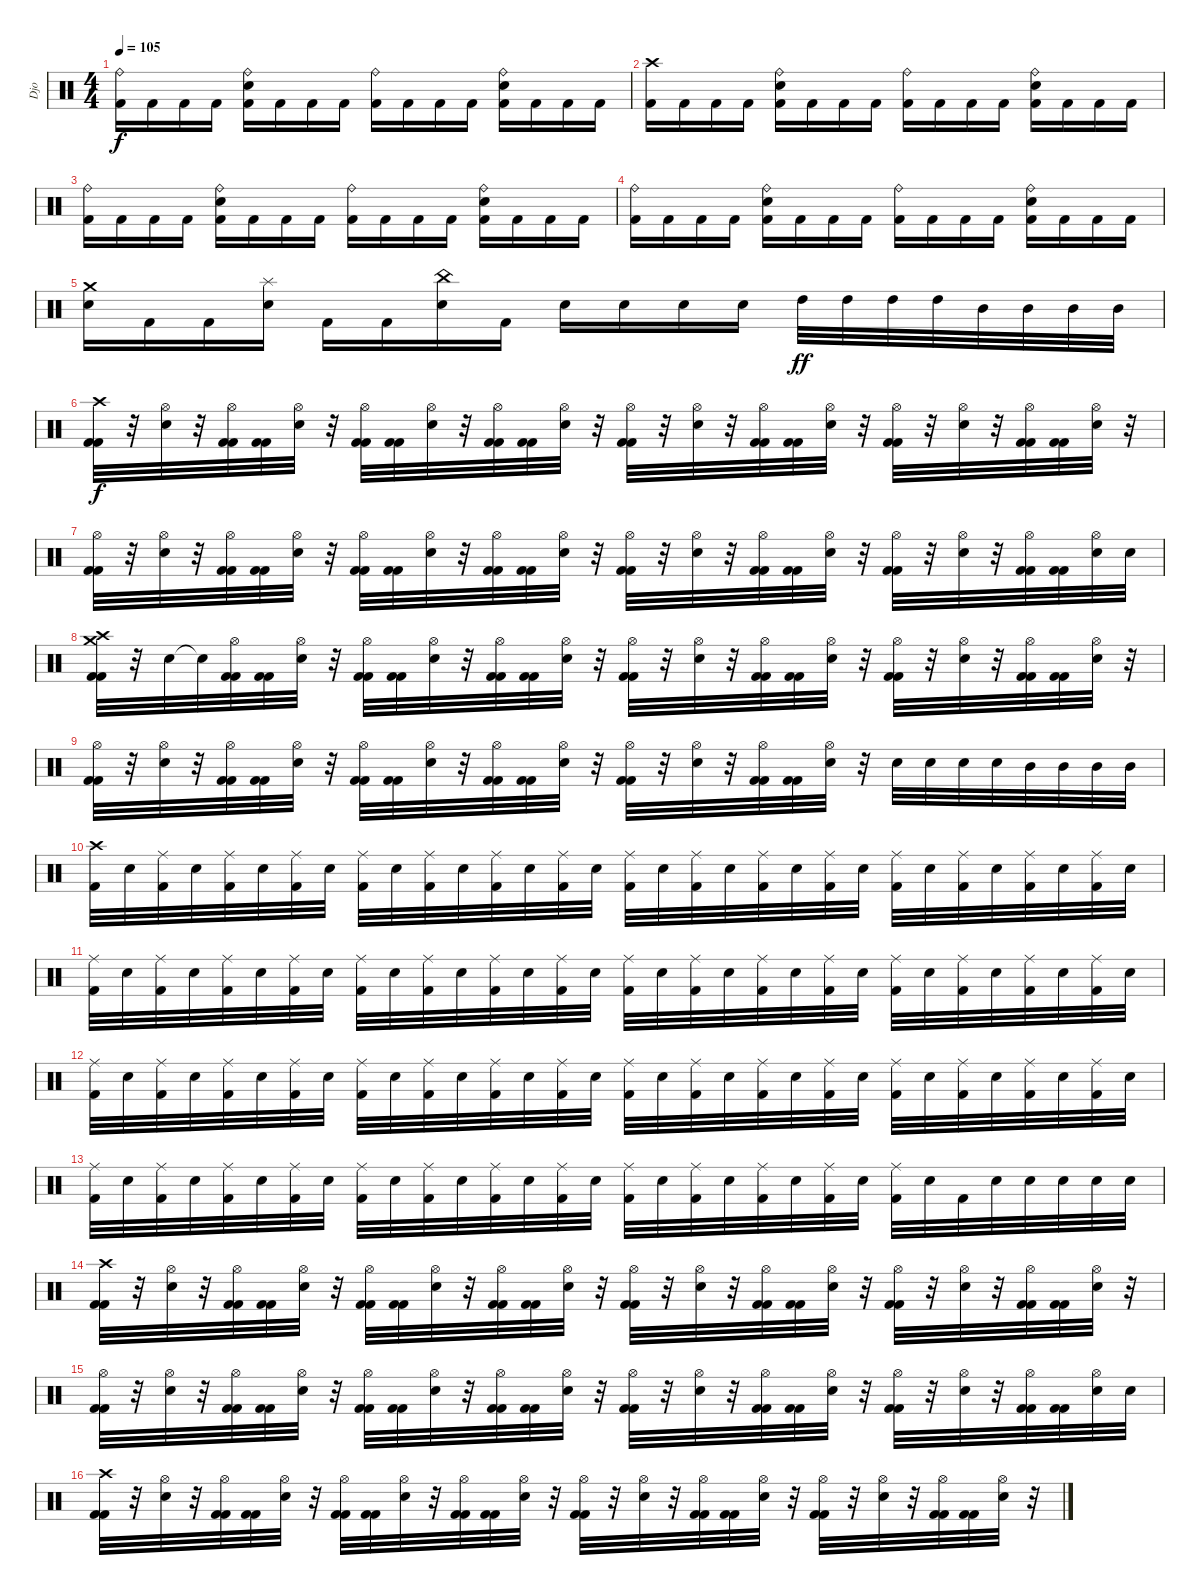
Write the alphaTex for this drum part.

\track ("Djo" "Djo") {instrument percussion}
\staff {score}
\articulation defaults
\ts (4 4)
\tempo 105
\clef neutral
\ks c
("Ride (bell)" "Kick (hit) 2").16{dy f} "Kick (hit) 2".16 "Kick (hit) 2".16 "Kick (hit) 2".16 ("Ride (bell)" "Snare (hit) 2" "Kick (hit) 2").16 "Kick (hit) 2".16 "Kick (hit) 2".16 "Kick (hit) 2".16 ("Ride (bell)" "Kick (hit) 2").16 "Kick (hit) 2".16 "Kick (hit) 2".16 "Kick (hit) 2".16 ("Ride (bell)" "Snare (hit) 2" "Kick (hit) 2").16 "Kick (hit) 2".16 "Kick (hit) 2".16 "Kick (hit) 2".16 |
("Crash high (hit)" "Kick (hit) 2").16 "Kick (hit) 2".16 "Kick (hit) 2".16 "Kick (hit) 2".16 ("Ride (bell)" "Snare (hit) 2" "Kick (hit) 2").16 "Kick (hit) 2".16 "Kick (hit) 2".16 "Kick (hit) 2".16 ("Ride (bell)" "Kick (hit) 2").16 "Kick (hit) 2".16 "Kick (hit) 2".16 "Kick (hit) 2".16 ("Ride (bell)" "Snare (hit) 2" "Kick (hit) 2").16 "Kick (hit) 2".16 "Kick (hit) 2".16 "Kick (hit) 2".16 |
("Ride (bell)" "Kick (hit) 2").16 "Kick (hit) 2".16 "Kick (hit) 2".16 "Kick (hit) 2".16 ("Ride (bell)" "Snare (hit) 2" "Kick (hit) 2").16 "Kick (hit) 2".16 "Kick (hit) 2".16 "Kick (hit) 2".16 ("Ride (bell)" "Kick (hit) 2").16 "Kick (hit) 2".16 "Kick (hit) 2".16 "Kick (hit) 2".16 ("Ride (bell)" "Snare (hit) 2" "Kick (hit) 2").16 "Kick (hit) 2".16 "Kick (hit) 2".16 "Kick (hit) 2".16 |
("Ride (bell)" "Kick (hit) 2").16 "Kick (hit) 2".16 "Kick (hit) 2".16 "Kick (hit) 2".16 ("Ride (bell)" "Snare (hit) 2" "Kick (hit) 2").16 "Kick (hit) 2".16 "Kick (hit) 2".16 "Kick (hit) 2".16 ("Ride (bell)" "Kick (hit) 2").16 "Kick (hit) 2".16 "Kick (hit) 2".16 "Kick (hit) 2".16 ("Ride (bell)" "Snare (hit) 2" "Kick (hit) 2").16 "Kick (hit) 2".16 "Kick (hit) 2".16 "Kick (hit) 2".16 |
("Crash medium (hit)" "Snare (hit) 2").16 "Kick (hit) 2".16 "Kick (hit) 2".16 ("Splash (hit)" "Snare (hit) 2").16 "Kick (hit) 2".16 "Kick (hit) 2".16 ("China (hit)" "Snare (hit) 2").16 "Kick (hit) 2".16 "Snare (hit) 2".16 "Snare (hit) 2".16 "Snare (hit) 2".16 "Snare (hit) 2".16 "High Tom (hit)".32{dy ff} "High Tom (hit)".32 "High Tom (hit)".32 "High Tom (hit)".32 "Mid Tom (hit)".32 "Mid Tom (hit)".32 "Mid Tom (hit)".32 "Mid Tom (hit)".32 |
("Crash high (hit)" "Kick (hit) 2" "Kick (hit) 2").32{dy f} r.32 ("Hi-Hat (open)" "Snare (hit) 2").32 r.32 ("Hi-Hat (open)" "Kick (hit) 2" "Kick (hit) 2").32 ("Kick (hit) 2" "Kick (hit) 2").32 ("Hi-Hat (open)" "Snare (hit) 2").32 r.32 ("Hi-Hat (open)" "Kick (hit) 2" "Kick (hit) 2").32 ("Kick (hit) 2" "Kick (hit) 2").32 ("Hi-Hat (open)" "Snare (hit) 2").32 r.32 ("Hi-Hat (open)" "Kick (hit) 2" "Kick (hit) 2").32 ("Kick (hit) 2" "Kick (hit) 2").32 ("Hi-Hat (open)" "Snare (hit) 2").32 r.32 ("Hi-Hat (open)" "Kick (hit) 2" "Kick (hit) 2").32 r.32 ("Hi-Hat (open)" "Snare (hit) 2").32 r.32 ("Hi-Hat (open)" "Kick (hit) 2" "Kick (hit) 2").32 ("Kick (hit) 2" "Kick (hit) 2").32 ("Hi-Hat (open)" "Snare (hit) 2").32 r.32 ("Hi-Hat (open)" "Kick (hit) 2" "Kick (hit) 2").32 r.32 ("Hi-Hat (open)" "Snare (hit) 2").32 r.32 ("Hi-Hat (open)" "Kick (hit) 2" "Kick (hit) 2").32 ("Kick (hit) 2" "Kick (hit) 2").32 ("Hi-Hat (open)" "Snare (hit) 2").32 r.32 |
("Hi-Hat (open)" "Kick (hit) 2" "Kick (hit) 2").32 r.32 ("Hi-Hat (open)" "Snare (hit) 2").32 r.32 ("Hi-Hat (open)" "Kick (hit) 2" "Kick (hit) 2").32 ("Kick (hit) 2" "Kick (hit) 2").32 ("Hi-Hat (open)" "Snare (hit) 2").32 r.32 ("Hi-Hat (open)" "Kick (hit) 2" "Kick (hit) 2").32 ("Kick (hit) 2" "Kick (hit) 2").32 ("Hi-Hat (open)" "Snare (hit) 2").32 r.32 ("Hi-Hat (open)" "Kick (hit) 2" "Kick (hit) 2").32 ("Kick (hit) 2" "Kick (hit) 2").32 ("Hi-Hat (open)" "Snare (hit) 2").32 r.32 ("Hi-Hat (open)" "Kick (hit) 2" "Kick (hit) 2").32 r.32 ("Hi-Hat (open)" "Snare (hit) 2").32 r.32 ("Hi-Hat (open)" "Kick (hit) 2" "Kick (hit) 2").32 ("Kick (hit) 2" "Kick (hit) 2").32 ("Hi-Hat (open)" "Snare (hit) 2").32 r.32 ("Hi-Hat (open)" "Kick (hit) 2" "Kick (hit) 2").32 r.32 ("Hi-Hat (open)" "Snare (hit) 2").32 r.32 ("Hi-Hat (open)" "Kick (hit) 2" "Kick (hit) 2").32 ("Kick (hit) 2" "Kick (hit) 2").32 ("Hi-Hat (open)" "Snare (hit) 2").32 "Snare (hit) 2".32 |
("Crash high (hit)" "Crash medium (hit)" "Kick (hit) 2" "Kick (hit) 2").32 r.32 "Snare (hit) 2".32 "Snare (hit)"{t}.32 ("Hi-Hat (open)" "Kick (hit) 2" "Kick (hit) 2").32 ("Kick (hit) 2" "Kick (hit) 2").32 ("Hi-Hat (open)" "Snare (hit) 2").32 r.32 ("Hi-Hat (open)" "Kick (hit) 2" "Kick (hit) 2").32 ("Kick (hit) 2" "Kick (hit) 2").32 ("Hi-Hat (open)" "Snare (hit) 2").32 r.32 ("Hi-Hat (open)" "Kick (hit) 2" "Kick (hit) 2").32 ("Kick (hit) 2" "Kick (hit) 2").32 ("Hi-Hat (open)" "Snare (hit) 2").32 r.32 ("Hi-Hat (open)" "Kick (hit) 2" "Kick (hit) 2").32 r.32 ("Hi-Hat (open)" "Snare (hit) 2").32 r.32 ("Hi-Hat (open)" "Kick (hit) 2" "Kick (hit) 2").32 ("Kick (hit) 2" "Kick (hit) 2").32 ("Hi-Hat (open)" "Snare (hit) 2").32 r.32 ("Hi-Hat (open)" "Kick (hit) 2" "Kick (hit) 2").32 r.32 ("Hi-Hat (open)" "Snare (hit) 2").32 r.32 ("Hi-Hat (open)" "Kick (hit) 2" "Kick (hit) 2").32 ("Kick (hit) 2" "Kick (hit) 2").32 ("Hi-Hat (open)" "Snare (hit) 2").32 r.32 |
("Hi-Hat (open)" "Kick (hit) 2" "Kick (hit) 2").32 r.32 ("Hi-Hat (open)" "Snare (hit) 2").32 r.32 ("Hi-Hat (open)" "Kick (hit) 2" "Kick (hit) 2").32 ("Kick (hit) 2" "Kick (hit) 2").32 ("Hi-Hat (open)" "Snare (hit) 2").32 r.32 ("Hi-Hat (open)" "Kick (hit) 2" "Kick (hit) 2").32 ("Kick (hit) 2" "Kick (hit) 2").32 ("Hi-Hat (open)" "Snare (hit) 2").32 r.32 ("Hi-Hat (open)" "Kick (hit) 2" "Kick (hit) 2").32 ("Kick (hit) 2" "Kick (hit) 2").32 ("Hi-Hat (open)" "Snare (hit) 2").32 r.32 ("Hi-Hat (open)" "Kick (hit) 2" "Kick (hit) 2").32 r.32 ("Hi-Hat (open)" "Snare (hit) 2").32 r.32 ("Hi-Hat (open)" "Kick (hit) 2" "Kick (hit) 2").32 ("Kick (hit) 2" "Kick (hit) 2").32 ("Hi-Hat (open)" "Snare (hit) 2").32 r.32 "Snare (hit) 2".32 "Snare (hit) 2".32 "Snare (hit) 2".32 "Snare (hit) 2".32 "Mid Tom (hit)".32 "Mid Tom (hit)".32 "Mid Tom (hit)".32 "Mid Tom (hit)".32 |
("Crash high (hit)" "Kick (hit) 2").32 "Snare (hit) 2".32 ("Ride (middle)" "Kick (hit) 2").32 "Snare (hit) 2".32 ("Ride (middle)" "Kick (hit) 2").32 "Snare (hit) 2".32 ("Ride (middle)" "Kick (hit) 2").32 "Snare (hit) 2".32 ("Ride (middle)" "Kick (hit) 2").32 "Snare (hit) 2".32 ("Ride (middle)" "Kick (hit) 2").32 "Snare (hit) 2".32 ("Ride (middle)" "Kick (hit) 2").32 "Snare (hit) 2".32 ("Ride (middle)" "Kick (hit) 2").32 "Snare (hit) 2".32 ("Ride (middle)" "Kick (hit) 2").32 "Snare (hit) 2".32 ("Ride (middle)" "Kick (hit) 2").32 "Snare (hit) 2".32 ("Ride (middle)" "Kick (hit) 2").32 "Snare (hit) 2".32 ("Ride (middle)" "Kick (hit) 2").32 "Snare (hit) 2".32 ("Ride (middle)" "Kick (hit) 2").32 "Snare (hit) 2".32 ("Ride (middle)" "Kick (hit) 2").32 "Snare (hit) 2".32 ("Ride (middle)" "Kick (hit) 2").32 "Snare (hit) 2".32 ("Ride (middle)" "Kick (hit) 2").32 "Snare (hit) 2".32 |
("Ride (middle)" "Kick (hit) 2").32 "Snare (hit) 2".32 ("Ride (middle)" "Kick (hit) 2").32 "Snare (hit) 2".32 ("Ride (middle)" "Kick (hit) 2").32 "Snare (hit) 2".32 ("Ride (middle)" "Kick (hit) 2").32 "Snare (hit) 2".32 ("Ride (middle)" "Kick (hit) 2").32 "Snare (hit) 2".32 ("Ride (middle)" "Kick (hit) 2").32 "Snare (hit) 2".32 ("Ride (middle)" "Kick (hit) 2").32 "Snare (hit) 2".32 ("Ride (middle)" "Kick (hit) 2").32 "Snare (hit) 2".32 ("Ride (middle)" "Kick (hit) 2").32 "Snare (hit) 2".32 ("Ride (middle)" "Kick (hit) 2").32 "Snare (hit) 2".32 ("Ride (middle)" "Kick (hit) 2").32 "Snare (hit) 2".32 ("Ride (middle)" "Kick (hit) 2").32 "Snare (hit) 2".32 ("Ride (middle)" "Kick (hit) 2").32 "Snare (hit) 2".32 ("Ride (middle)" "Kick (hit) 2").32 "Snare (hit) 2".32 ("Ride (middle)" "Kick (hit) 2").32 "Snare (hit) 2".32 ("Ride (middle)" "Kick (hit) 2").32 "Snare (hit) 2".32 |
("Ride (middle)" "Kick (hit) 2").32 "Snare (hit) 2".32 ("Ride (middle)" "Kick (hit) 2").32 "Snare (hit) 2".32 ("Ride (middle)" "Kick (hit) 2").32 "Snare (hit) 2".32 ("Ride (middle)" "Kick (hit) 2").32 "Snare (hit) 2".32 ("Ride (middle)" "Kick (hit) 2").32 "Snare (hit) 2".32 ("Ride (middle)" "Kick (hit) 2").32 "Snare (hit) 2".32 ("Ride (middle)" "Kick (hit) 2").32 "Snare (hit) 2".32 ("Ride (middle)" "Kick (hit) 2").32 "Snare (hit) 2".32 ("Ride (middle)" "Kick (hit) 2").32 "Snare (hit) 2".32 ("Ride (middle)" "Kick (hit) 2").32 "Snare (hit) 2".32 ("Ride (middle)" "Kick (hit) 2").32 "Snare (hit) 2".32 ("Ride (middle)" "Kick (hit) 2").32 "Snare (hit) 2".32 ("Ride (middle)" "Kick (hit) 2").32 "Snare (hit) 2".32 ("Ride (middle)" "Kick (hit) 2").32 "Snare (hit) 2".32 ("Ride (middle)" "Kick (hit) 2").32 "Snare (hit) 2".32 ("Ride (middle)" "Kick (hit) 2").32 "Snare (hit) 2".32 |
("Ride (middle)" "Kick (hit) 2").32 "Snare (hit) 2".32 ("Ride (middle)" "Kick (hit) 2").32 "Snare (hit) 2".32 ("Ride (middle)" "Kick (hit) 2").32 "Snare (hit) 2".32 ("Ride (middle)" "Kick (hit) 2").32 "Snare (hit) 2".32 ("Ride (middle)" "Kick (hit) 2").32 "Snare (hit) 2".32 ("Ride (middle)" "Kick (hit) 2").32 "Snare (hit) 2".32 ("Ride (middle)" "Kick (hit) 2").32 "Snare (hit) 2".32 ("Ride (middle)" "Kick (hit) 2").32 "Snare (hit) 2".32 ("Ride (middle)" "Kick (hit) 2").32 "Snare (hit) 2".32 ("Ride (middle)" "Kick (hit) 2").32 "Snare (hit) 2".32 ("Ride (middle)" "Kick (hit) 2").32 "Snare (hit) 2".32 ("Ride (middle)" "Kick (hit) 2").32 "Snare (hit) 2".32 ("Ride (middle)" "Kick (hit) 2").32 "Snare (hit) 2".32 "Kick (hit) 2".32 "Snare (hit) 2".32 "Snare (hit) 2".32 "Snare (hit) 2".32 "Snare (hit) 2".32 "Snare (hit) 2".32 |
("Crash high (hit)" "Kick (hit) 2" "Kick (hit) 2").32 r.32 ("Hi-Hat (open)" "Snare (hit) 2").32 r.32 ("Hi-Hat (open)" "Kick (hit) 2" "Kick (hit) 2").32 ("Kick (hit) 2" "Kick (hit) 2").32 ("Hi-Hat (open)" "Snare (hit) 2").32 r.32 ("Hi-Hat (open)" "Kick (hit) 2" "Kick (hit) 2").32 ("Kick (hit) 2" "Kick (hit) 2").32 ("Hi-Hat (open)" "Snare (hit) 2").32 r.32 ("Hi-Hat (open)" "Kick (hit) 2" "Kick (hit) 2").32 ("Kick (hit) 2" "Kick (hit) 2").32 ("Hi-Hat (open)" "Snare (hit) 2").32 r.32 ("Hi-Hat (open)" "Kick (hit) 2" "Kick (hit) 2").32 r.32 ("Hi-Hat (open)" "Snare (hit) 2").32 r.32 ("Hi-Hat (open)" "Kick (hit) 2" "Kick (hit) 2").32 ("Kick (hit) 2" "Kick (hit) 2").32 ("Hi-Hat (open)" "Snare (hit) 2").32 r.32 ("Hi-Hat (open)" "Kick (hit) 2" "Kick (hit) 2").32 r.32 ("Hi-Hat (open)" "Snare (hit) 2").32 r.32 ("Hi-Hat (open)" "Kick (hit) 2" "Kick (hit) 2").32 ("Kick (hit) 2" "Kick (hit) 2").32 ("Hi-Hat (open)" "Snare (hit) 2").32 r.32 |
("Hi-Hat (open)" "Kick (hit) 2" "Kick (hit) 2").32 r.32 ("Hi-Hat (open)" "Snare (hit) 2").32 r.32 ("Hi-Hat (open)" "Kick (hit) 2" "Kick (hit) 2").32 ("Kick (hit) 2" "Kick (hit) 2").32 ("Hi-Hat (open)" "Snare (hit) 2").32 r.32 ("Hi-Hat (open)" "Kick (hit) 2" "Kick (hit) 2").32 ("Kick (hit) 2" "Kick (hit) 2").32 ("Hi-Hat (open)" "Snare (hit) 2").32 r.32 ("Hi-Hat (open)" "Kick (hit) 2" "Kick (hit) 2").32 ("Kick (hit) 2" "Kick (hit) 2").32 ("Hi-Hat (open)" "Snare (hit) 2").32 r.32 ("Hi-Hat (open)" "Kick (hit) 2" "Kick (hit) 2").32 r.32 ("Hi-Hat (open)" "Snare (hit) 2").32 r.32 ("Hi-Hat (open)" "Kick (hit) 2" "Kick (hit) 2").32 ("Kick (hit) 2" "Kick (hit) 2").32 ("Hi-Hat (open)" "Snare (hit) 2").32 r.32 ("Hi-Hat (open)" "Kick (hit) 2" "Kick (hit) 2").32 r.32 ("Hi-Hat (open)" "Snare (hit) 2").32 r.32 ("Hi-Hat (open)" "Kick (hit) 2" "Kick (hit) 2").32 ("Kick (hit) 2" "Kick (hit) 2").32 ("Hi-Hat (open)" "Snare (hit) 2").32 "Snare (hit) 2".32 |
("Crash high (hit)" "Kick (hit) 2" "Kick (hit) 2").32 r.32 ("Hi-Hat (open)" "Snare (hit) 2").32 r.32 ("Hi-Hat (open)" "Kick (hit) 2" "Kick (hit) 2").32 ("Kick (hit) 2" "Kick (hit) 2").32 ("Hi-Hat (open)" "Snare (hit) 2").32 r.32 ("Hi-Hat (open)" "Kick (hit) 2" "Kick (hit) 2").32 ("Kick (hit) 2" "Kick (hit) 2").32 ("Hi-Hat (open)" "Snare (hit) 2").32 r.32 ("Hi-Hat (open)" "Kick (hit) 2" "Kick (hit) 2").32 ("Kick (hit) 2" "Kick (hit) 2").32 ("Hi-Hat (open)" "Snare (hit) 2").32 r.32 ("Hi-Hat (open)" "Kick (hit) 2" "Kick (hit) 2").32 r.32 ("Hi-Hat (open)" "Snare (hit) 2").32 r.32 ("Hi-Hat (open)" "Kick (hit) 2" "Kick (hit) 2").32 ("Kick (hit) 2" "Kick (hit) 2").32 ("Hi-Hat (open)" "Snare (hit) 2").32 r.32 ("Hi-Hat (open)" "Kick (hit) 2" "Kick (hit) 2").32 r.32 ("Hi-Hat (open)" "Snare (hit) 2").32 r.32 ("Hi-Hat (open)" "Kick (hit) 2" "Kick (hit) 2").32 ("Kick (hit) 2" "Kick (hit) 2").32 ("Hi-Hat (open)" "Snare (hit) 2").32 r.32
